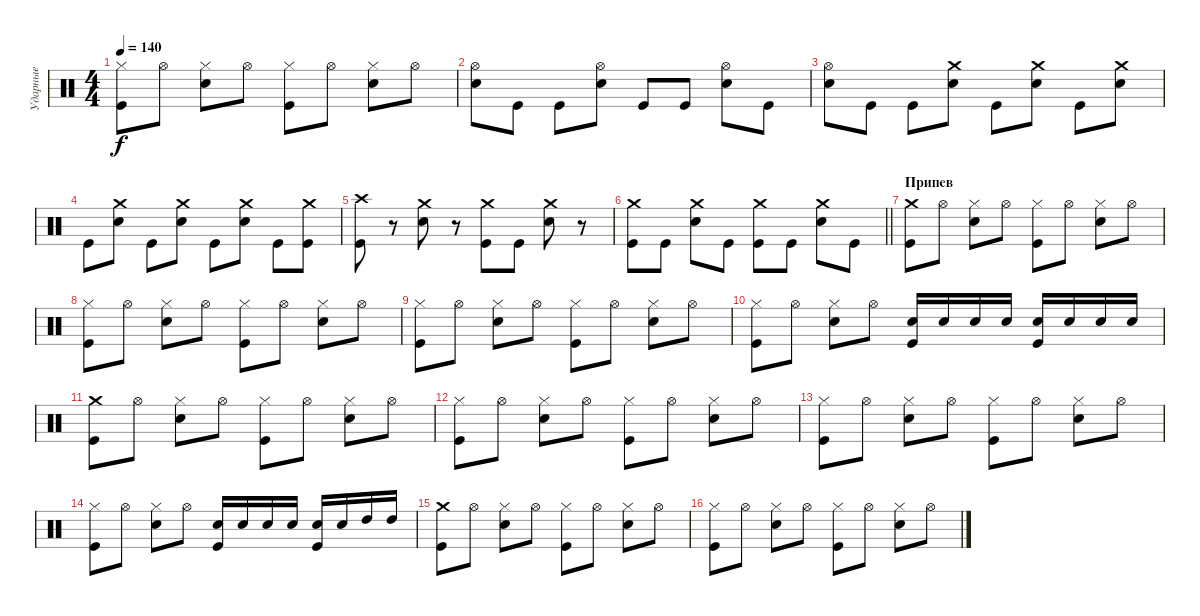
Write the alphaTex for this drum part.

\track ("Ударные" "Ударные") {instrument percussion}
\staff {score}
\articulation defaults
\ts (4 4)
\tempo 140
\clef neutral
\ks c
("Hi-Hat (closed)" "Kick (hit)").8{dy f} "Hi-Hat (open)".8 ("Hi-Hat (closed)" "Electric Snare (hit)").8 "Hi-Hat (open)".8 ("Hi-Hat (closed)" "Kick (hit)").8 "Hi-Hat (open)".8 ("Hi-Hat (closed)" "Electric Snare (hit)").8 "Hi-Hat (open)".8 |
("Hi-Hat (open)" "Electric Snare (hit)").8 "Kick (hit)".8 "Kick (hit)".8 ("Hi-Hat (open)" "Electric Snare (hit)").8 "Kick (hit)".8 "Kick (hit)".8 ("Hi-Hat (open)" "Electric Snare (hit)").8 "Kick (hit)".8 |
("Hi-Hat (open)" "Electric Snare (hit)").8 "Kick (hit)".8 "Kick (hit)".8 ("Crash medium (hit)" "Electric Snare (hit)").8 "Kick (hit)".8 ("Crash medium (hit)" "Electric Snare (hit)").8 "Kick (hit)".8 ("Crash medium (hit)" "Electric Snare (hit)").8 |
"Kick (hit)".8 ("Crash medium (hit)" "Electric Snare (hit)").8 "Kick (hit)".8 ("Crash medium (hit)" "Electric Snare (hit)").8 "Kick (hit)".8 ("Crash medium (hit)" "Electric Snare (hit)").8 "Kick (hit)".8 ("Crash medium (hit)" "Kick (hit)").8 |
("Crash high (hit)" "Kick (hit)").8 r.8 ("Crash medium (hit)" "Electric Snare (hit)").8 r.8 ("Crash medium (hit)" "Kick (hit)").8 "Kick (hit)".8 ("Crash medium (hit)" "Electric Snare (hit)").8 r.8 |
\barLineRight lightlight
("Crash medium (hit)" "Kick (hit)").8 "Kick (hit)".8 ("Crash medium (hit)" "Electric Snare (hit)").8 "Kick (hit)".8 ("Crash medium (hit)" "Kick (hit)").8 "Kick (hit)".8 ("Crash medium (hit)" "Electric Snare (hit)").8 "Kick (hit)".8 |
\section ("" "Припев")
("Crash medium (hit)" "Kick (hit)").8 "Hi-Hat (open)".8 ("Hi-Hat (closed)" "Electric Snare (hit)").8 "Hi-Hat (open)".8 ("Hi-Hat (closed)" "Kick (hit)").8 "Hi-Hat (open)".8 ("Hi-Hat (closed)" "Electric Snare (hit)").8 "Hi-Hat (open)".8 |
("Hi-Hat (closed)" "Kick (hit)").8 "Hi-Hat (open)".8 ("Hi-Hat (closed)" "Electric Snare (hit)").8 "Hi-Hat (open)".8 ("Hi-Hat (closed)" "Kick (hit)").8 "Hi-Hat (open)".8 ("Hi-Hat (closed)" "Electric Snare (hit)").8 "Hi-Hat (open)".8 |
("Hi-Hat (closed)" "Kick (hit)").8 "Hi-Hat (open)".8 ("Hi-Hat (closed)" "Electric Snare (hit)").8 "Hi-Hat (open)".8 ("Hi-Hat (closed)" "Kick (hit)").8 "Hi-Hat (open)".8 ("Hi-Hat (closed)" "Electric Snare (hit)").8 "Hi-Hat (open)".8 |
("Hi-Hat (closed)" "Kick (hit)").8 "Hi-Hat (open)".8 ("Hi-Hat (closed)" "Electric Snare (hit)").8 "Hi-Hat (open)".8 ("Electric Snare (hit)" "Kick (hit)").16 "Electric Snare (hit)".16 "Electric Snare (hit)".16 "Electric Snare (hit)".16 ("Electric Snare (hit)" "Kick (hit)").16 "Electric Snare (hit)".16 "Electric Snare (hit)".16 "Electric Snare (hit)".16 |
("Crash medium (hit)" "Kick (hit)").8 "Hi-Hat (open)".8 ("Hi-Hat (closed)" "Electric Snare (hit)").8 "Hi-Hat (open)".8 ("Hi-Hat (closed)" "Kick (hit)").8 "Hi-Hat (open)".8 ("Hi-Hat (closed)" "Electric Snare (hit)").8 "Hi-Hat (open)".8 |
("Hi-Hat (closed)" "Kick (hit)").8 "Hi-Hat (open)".8 ("Hi-Hat (closed)" "Electric Snare (hit)").8 "Hi-Hat (open)".8 ("Hi-Hat (closed)" "Kick (hit)").8 "Hi-Hat (open)".8 ("Hi-Hat (closed)" "Electric Snare (hit)").8 "Hi-Hat (open)".8 |
("Hi-Hat (closed)" "Kick (hit)").8 "Hi-Hat (open)".8 ("Hi-Hat (closed)" "Electric Snare (hit)").8 "Hi-Hat (open)".8 ("Hi-Hat (closed)" "Kick (hit)").8 "Hi-Hat (open)".8 ("Hi-Hat (closed)" "Electric Snare (hit)").8 "Hi-Hat (open)".8 |
("Hi-Hat (closed)" "Kick (hit)").8 "Hi-Hat (open)".8 ("Hi-Hat (closed)" "Electric Snare (hit)").8 "Hi-Hat (open)".8 ("Electric Snare (hit)" "Kick (hit)").16 "Electric Snare (hit)".16 "Electric Snare (hit)".16 "Electric Snare (hit)".16 ("Electric Snare (hit)" "Kick (hit)").16 "Electric Snare (hit)".16 "High Tom (hit)".16 "High Tom (hit)".16 |
("Crash medium (hit)" "Kick (hit)").8 "Hi-Hat (open)".8 ("Hi-Hat (closed)" "Electric Snare (hit)").8 "Hi-Hat (open)".8 ("Hi-Hat (closed)" "Kick (hit)").8 "Hi-Hat (open)".8 ("Hi-Hat (closed)" "Electric Snare (hit)").8 "Hi-Hat (open)".8 |
("Hi-Hat (closed)" "Kick (hit)").8 "Hi-Hat (open)".8 ("Hi-Hat (closed)" "Electric Snare (hit)").8 "Hi-Hat (open)".8 ("Hi-Hat (closed)" "Kick (hit)").8 "Hi-Hat (open)".8 ("Hi-Hat (closed)" "Electric Snare (hit)").8 "Hi-Hat (open)".8
